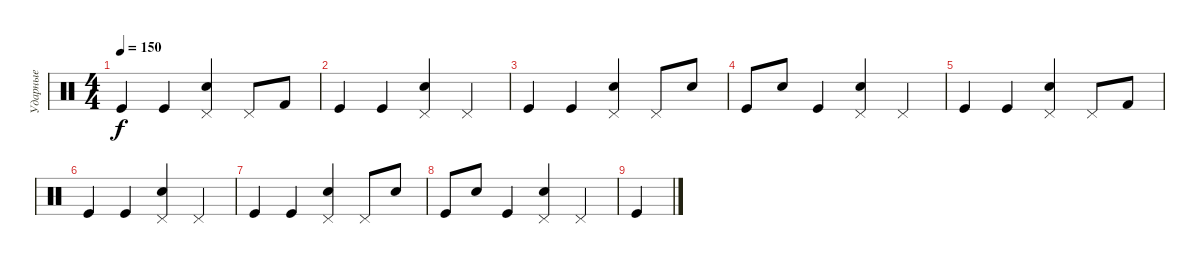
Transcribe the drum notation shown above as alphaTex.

\track ("Ударные" "Ударные") {instrument percussion}
\staff {score}
\articulation defaults
\ts (4 4)
\tempo 150
\clef neutral
\ks c "Kick (hit)".4{dy f} "Kick (hit)".4
("Electric Snare (hit)" "Pedal Hi-Hat (hit)").4 "Pedal Hi-Hat (hit)".8 "Kick (hit) 2".8 |
"Kick (hit)".4 "Kick (hit)".4 ("Electric Snare (hit)" "Pedal Hi-Hat (hit)").4 "Pedal Hi-Hat (hit)".4 |
"Kick (hit)".4 "Kick (hit)".4 ("Electric Snare (hit)" "Pedal Hi-Hat (hit)").4 "Pedal Hi-Hat (hit)".8 "Electric Snare (hit)".8 |
"Kick (hit)".8 "Electric Snare (hit)".8 "Kick (hit)".4 ("Electric Snare (hit)" "Pedal Hi-Hat (hit)").4 "Pedal Hi-Hat (hit)".4 |
"Kick (hit)".4 "Kick (hit)".4 ("Electric Snare (hit)" "Pedal Hi-Hat (hit)").4 "Pedal Hi-Hat (hit)".8 "Kick (hit) 2".8 |
"Kick (hit)".4 "Kick (hit)".4 ("Electric Snare (hit)" "Pedal Hi-Hat (hit)").4 "Pedal Hi-Hat (hit)".4 |
"Kick (hit)".4 "Kick (hit)".4 ("Electric Snare (hit)" "Pedal Hi-Hat (hit)").4 "Pedal Hi-Hat (hit)".8 "Electric Snare (hit)".8 |
"Kick (hit)".8 "Electric Snare (hit)".8 "Kick (hit)".4 ("Electric Snare (hit)" "Pedal Hi-Hat (hit)").4 "Pedal Hi-Hat (hit)".4 |
"Kick (hit)".4
